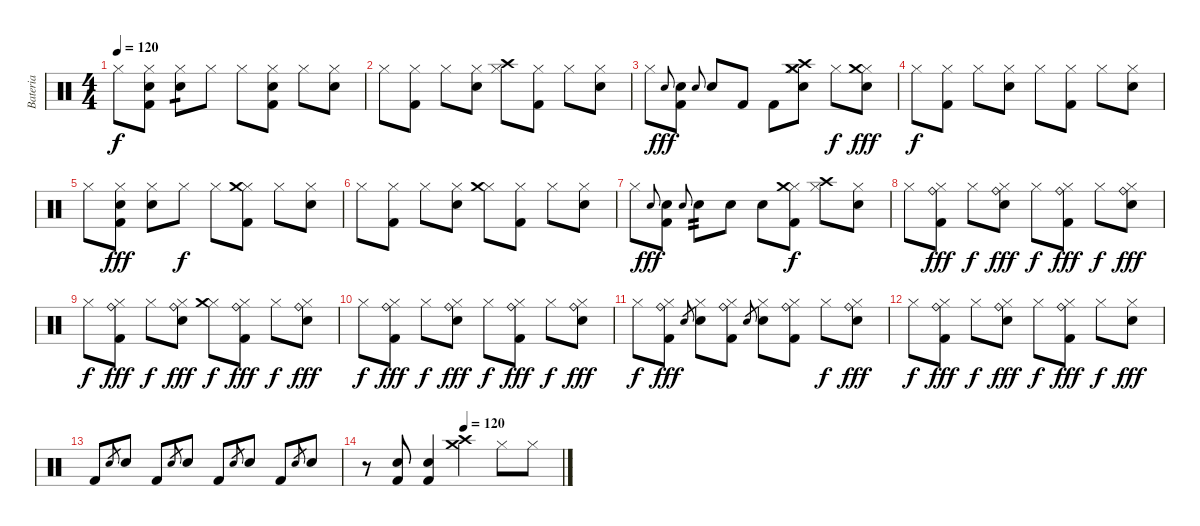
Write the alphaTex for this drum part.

\track ("Bateria" "Bateria") {instrument percussion}
\staff {score}
\articulation defaults
\ts (4 4)
\tempo 120
\clef neutral
\ks c "Hi-Hat (closed)".8{dy f}
("Hi-Hat (closed)" "Electric Snare (hit)" "Kick (hit) 2").8 ("Hi-Hat (closed)" "Electric Snare (hit)").8{tp 1} "Hi-Hat (closed)".8 "Hi-Hat (closed)".8 ("Hi-Hat (closed)" "Electric Snare (hit)" "Kick (hit) 2").8 "Hi-Hat (closed)".8 ("Hi-Hat (closed)" "Electric Snare (hit)").8 |
"Hi-Hat (closed)".8 ("Hi-Hat (closed)" "Kick (hit) 2").8 "Hi-Hat (closed)".8 ("Hi-Hat (closed)" "Electric Snare (hit)").8 ("Hi-Hat (closed)" "Crash high (hit)").8 ("Hi-Hat (closed)" "Kick (hit) 2").8 "Hi-Hat (closed)".8 ("Hi-Hat (closed)" "Electric Snare (hit)").8 |
"Hi-Hat (closed)".8 "Electric Snare (hit)".8{gr onbeat dy fff} ("Electric Snare (hit)" "Kick (hit) 2").8 "Electric Snare (hit)".8{gr onbeat} "Electric Snare (hit)".8 "Kick (hit) 2".8 "Kick (hit) 2".8 ("Hi-Hat (closed)" "Electric Snare (hit)" "Crash high (hit)" "Crash medium (hit)").8 "Hi-Hat (closed)".8{dy f} ("Hi-Hat (closed)" "Electric Snare (hit)" "Crash medium (hit)").8{dy fff} |
"Hi-Hat (closed)".8{dy f} ("Hi-Hat (closed)" "Kick (hit) 2").8 "Hi-Hat (closed)".8 ("Hi-Hat (closed)" "Electric Snare (hit)").8 "Hi-Hat (closed)".8 ("Hi-Hat (closed)" "Kick (hit) 2").8 "Hi-Hat (closed)".8 ("Hi-Hat (closed)" "Electric Snare (hit)").8 |
"Hi-Hat (closed)".8 ("Hi-Hat (closed)" "Electric Snare (hit)" "Kick (hit) 2").8{dy fff} ("Hi-Hat (closed)" "Electric Snare (hit)").8 "Hi-Hat (closed)".8{dy f} "Hi-Hat (closed)".8 ("Hi-Hat (closed)" "Kick (hit) 2" "Crash medium (hit)").8 "Hi-Hat (closed)".8 ("Hi-Hat (closed)" "Electric Snare (hit)").8 |
"Hi-Hat (closed)".8 ("Hi-Hat (closed)" "Kick (hit) 2").8 "Hi-Hat (closed)".8 ("Hi-Hat (closed)" "Electric Snare (hit)").8 ("Hi-Hat (closed)" "Crash medium (hit)").8 ("Hi-Hat (closed)" "Kick (hit) 2").8 "Hi-Hat (closed)".8 ("Hi-Hat (closed)" "Electric Snare (hit)").8 |
"Hi-Hat (closed)".8 "Electric Snare (hit)".8{gr onbeat dy fff} ("Electric Snare (hit)" "Kick (hit) 2").8 "Electric Snare (hit)".8{gr onbeat} "Electric Snare (hit)".8{tp 2} "Electric Snare (hit)".8 "Electric Snare (hit)".8 ("Hi-Hat (closed)" "Kick (hit) 2" "Crash medium (hit)").8{dy f} ("Hi-Hat (closed)" "Crash high (hit)").8 ("Hi-Hat (closed)" "Electric Snare (hit)").8 |
"Hi-Hat (closed)".8 ("Hi-Hat (closed)" "Kick (hit) 2" "Ride (bell)").8{dy fff} "Hi-Hat (closed)".8{dy f} ("Hi-Hat (closed)" "Electric Snare (hit)" "Ride (bell)").8{dy fff} "Hi-Hat (closed)".8{dy f} ("Hi-Hat (closed)" "Kick (hit) 2" "Ride (bell)").8{dy fff} "Hi-Hat (closed)".8{dy f} ("Hi-Hat (closed)" "Electric Snare (hit)" "Ride (bell)").8{dy fff} |
"Hi-Hat (closed)".8{dy f} ("Hi-Hat (closed)" "Kick (hit) 2" "Ride (bell)").8{dy fff} "Hi-Hat (closed)".8{dy f} ("Hi-Hat (closed)" "Electric Snare (hit)" "Ride (bell)").8{dy fff} ("Hi-Hat (closed)" "Crash medium (hit)").8{dy f} ("Hi-Hat (closed)" "Kick (hit) 2" "Ride (bell)").8{dy fff} "Hi-Hat (closed)".8{dy f} ("Hi-Hat (closed)" "Electric Snare (hit)" "Ride (bell)").8{dy fff} |
"Hi-Hat (closed)".8{dy f} ("Hi-Hat (closed)" "Kick (hit) 2" "Ride (bell)").8{dy fff} "Hi-Hat (closed)".8{dy f} ("Hi-Hat (closed)" "Electric Snare (hit)" "Ride (bell)").8{dy fff} "Hi-Hat (closed)".8{dy f} ("Hi-Hat (closed)" "Kick (hit) 2" "Ride (bell)").8{dy fff} "Hi-Hat (closed)".8{dy f} ("Hi-Hat (closed)" "Electric Snare (hit)" "Ride (bell)").8{dy fff} |
"Hi-Hat (closed)".8{dy f} ("Hi-Hat (closed)" "Kick (hit) 2" "Ride (bell)").8{dy fff} "Electric Snare (hit)".8{gr} ("Hi-Hat (closed)" "Electric Snare (hit)").8 ("Hi-Hat (closed)" "Kick (hit) 2" "Ride (bell)").8 "Electric Snare (hit)".8{gr} ("Hi-Hat (closed)" "Electric Snare (hit)").8 ("Hi-Hat (closed)" "Kick (hit) 2" "Ride (bell)").8 "Hi-Hat (closed)".8{dy f} ("Hi-Hat (closed)" "Electric Snare (hit)" "Ride (bell)").8{dy fff} |
"Hi-Hat (closed)".8{dy f} ("Hi-Hat (closed)" "Kick (hit) 2" "Ride (bell)").8{dy fff} "Hi-Hat (closed)".8{dy f} ("Hi-Hat (closed)" "Electric Snare (hit)" "Ride (bell)").8{dy fff} "Hi-Hat (closed)".8{dy f} ("Hi-Hat (closed)" "Kick (hit) 2" "Ride (bell)").8{dy fff} "Hi-Hat (closed)".8{dy f} ("Hi-Hat (closed)" "Electric Snare (hit)").8{dy fff} |
"Kick (hit) 2".8 "Electric Snare (hit)".8{gr} "Electric Snare (hit)".8 "Kick (hit) 2".8 "Electric Snare (hit)".8{gr} "Electric Snare (hit)".8 "Kick (hit) 2".8 "Electric Snare (hit)".8{gr} "Electric Snare (hit)".8 "Kick (hit) 2".8 "Electric Snare (hit)".8{gr} "Electric Snare (hit)".8 |
\tempo (120 0.5)
r.8 ("Electric Snare (hit)" "Kick (hit) 2").8 ("Electric Snare (hit)" "Kick (hit) 2").4 ("Crash medium (hit)" "Crash high (hit)").4 "Hi-Hat (closed)".8 "Hi-Hat (closed)".8
